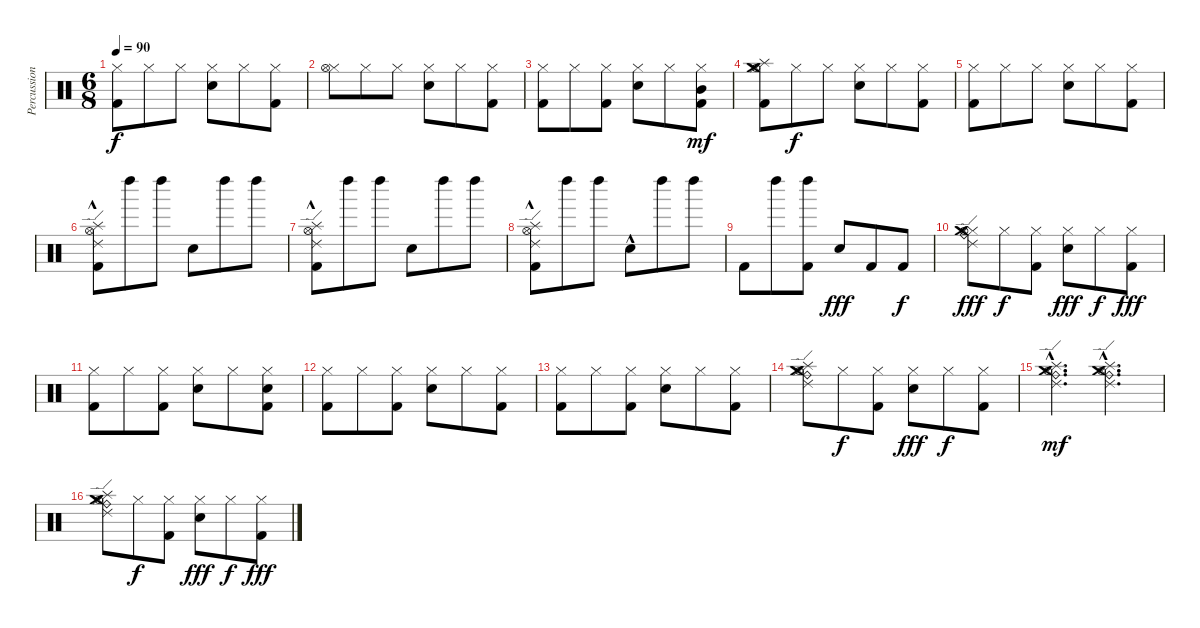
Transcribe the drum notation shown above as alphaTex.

\track ("Percussion" "Percussion") {instrument percussion}
\staff {score}
\articulation defaults
\ts (6 8)
\tempo 90
\clef neutral
\ks c
("Hi-Hat (closed)" "Kick (hit) 2").8{dy f} "Hi-Hat (closed)".8 "Hi-Hat (closed)".8 ("Hi-Hat (closed)" "Snare (hit) 2").8 "Hi-Hat (closed)".8 ("Hi-Hat (closed)" "Kick (hit) 2").8 |
("Hi-Hat (closed)" "Hi-Hat (open)").8 "Hi-Hat (closed)".8 "Hi-Hat (closed)".8 ("Hi-Hat (closed)" "Snare (hit) 2").8 "Hi-Hat (closed)".8 ("Hi-Hat (closed)" "Kick (hit) 2").8 |
("Hi-Hat (closed)" "Kick (hit) 2").8 "Hi-Hat (closed)".8 ("Hi-Hat (closed)" "Kick (hit) 2").8 ("Hi-Hat (closed)" "Snare (hit) 2").8 "Hi-Hat (closed)".8 ("Hi-Hat (closed)" "Mid Tom (hit)" "Kick (hit) 2").8{dy mf} |
("Hi-Hat (closed)" "Hi-Hat (open)" "Splash (hit)" "Crash medium (hit)" "Kick (hit) 2").8 "Hi-Hat (closed)".8{dy f} "Hi-Hat (closed)".8 ("Hi-Hat (closed)" "Snare (hit) 2").8 "Hi-Hat (closed)".8 ("Hi-Hat (closed)" "Kick (hit) 2").8 |
("Hi-Hat (closed)" "Kick (hit) 2").8 "Hi-Hat (closed)".8 "Hi-Hat (closed)".8 ("Hi-Hat (closed)" "Snare (hit) 2").8 "Hi-Hat (closed)".8 ("Hi-Hat (closed)" "Kick (hit) 2").8 |
("Hi-Hat (open)" "Splash (hit)" "Ride (edge) 2" "Kick (hit) 2"{hac}).8 "Left Maraca (hit)".8 "Left Maraca (hit)".8 "Snare (hit) 2".8 "Left Maraca (hit)".8 "Left Maraca (hit)".8 |
("Hi-Hat (open)" "Splash (hit)" "Ride (edge) 2" "Kick (hit) 2"{hac}).8 "Left Maraca (hit)".8 "Left Maraca (hit)".8 "Snare (hit) 2".8 "Left Maraca (hit)".8 "Left Maraca (hit)".8 |
("Hi-Hat (open)" "Splash (hit)" "Ride (edge) 2" "Kick (hit) 2"{hac}).8 "Left Maraca (hit)".8 "Left Maraca (hit)".8 "Snare (hit) 2"{hac}.8 "Left Maraca (hit)".8 "Left Maraca (hit)".8 |
"Kick (hit) 2".8 "Left Maraca (hit)".8 ("Left Maraca (hit)" "Kick (hit) 2").8 "Snare (hit) 2".8{dy fff} "Kick (hit) 2".8 "Kick (hit) 2".8{dy f} |
("Hi-Hat (closed)" "Hi-Hat (open)" "Ride (bell)" "Crash medium (hit)" "Ride (edge) 2").8{dy fff} "Hi-Hat (closed)".8{dy f} ("Hi-Hat (closed)" "Kick (hit) 2").8 ("Hi-Hat (closed)" "Snare (hit) 2").8{dy fff} "Hi-Hat (closed)".8{dy f} ("Hi-Hat (closed)" "Kick (hit) 2").8{dy fff} |
("Hi-Hat (closed)" "Kick (hit) 2").8 "Hi-Hat (closed)".8 ("Hi-Hat (closed)" "Kick (hit) 2").8 ("Hi-Hat (closed)" "Snare (hit) 2").8 "Hi-Hat (closed)".8 ("Hi-Hat (closed)" "Snare (hit) 2" "Kick (hit) 2").8 |
("Hi-Hat (closed)" "Kick (hit) 2").8 "Hi-Hat (closed)".8 ("Hi-Hat (closed)" "Kick (hit) 2").8 ("Hi-Hat (closed)" "Snare (hit) 2").8 "Hi-Hat (closed)".8 ("Hi-Hat (closed)" "Kick (hit) 2").8 |
("Hi-Hat (closed)" "Kick (hit) 2").8 "Hi-Hat (closed)".8 ("Hi-Hat (closed)" "Kick (hit) 2").8 ("Hi-Hat (closed)" "Snare (hit) 2").8 "Hi-Hat (closed)".8 ("Hi-Hat (closed)" "Kick (hit) 2").8 |
("Hi-Hat (closed)" "Hi-Hat (open)" "Ride (bell)" "Splash (hit)" "Crash medium (hit)" "Ride (edge) 2").8 "Hi-Hat (closed)".8{dy f} ("Hi-Hat (closed)" "Kick (hit) 2").8 ("Hi-Hat (closed)" "Snare (hit) 2").8{dy fff} "Hi-Hat (closed)".8{dy f} ("Hi-Hat (closed)" "Kick (hit) 2").8 |
("Hi-Hat (open)"{hac} "Ride (bell)"{hac} "Splash (hit)"{hac} "Crash medium (hit)"{hac} "Ride (edge) 2"{hac}).4{d dy mf} ("Hi-Hat (open)"{hac} "Ride (bell)"{hac} "Splash (hit)"{hac} "Crash medium (hit)"{hac} "Ride (edge) 2"{hac}).4{d balance 16} |
("Hi-Hat (closed)" "Hi-Hat (open)" "Ride (bell)" "Splash (hit)" "Crash medium (hit)" "Ride (edge) 2").8{balance 8} "Hi-Hat (closed)".8{dy f} ("Hi-Hat (closed)" "Kick (hit) 2").8 ("Hi-Hat (closed)" "Snare (hit) 2").8{dy fff} "Hi-Hat (closed)".8{dy f} ("Hi-Hat (closed)" "Kick (hit) 2").8{dy fff}
